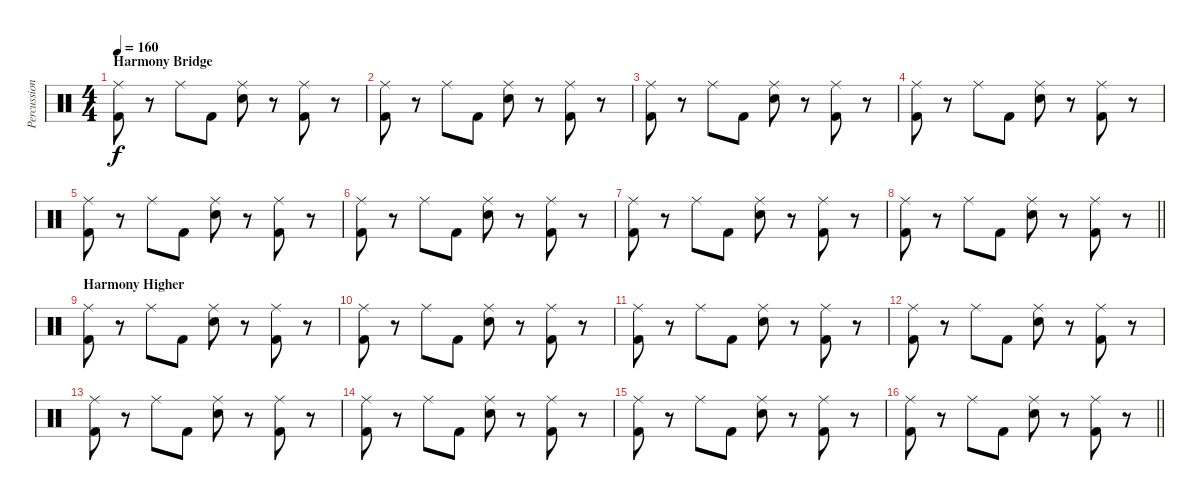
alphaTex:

\track ("Percussion" "Percussion") {instrument percussion}
\staff {score}
\articulation defaults
\ts (4 4)
\section ("" "Harmony Bridge")
\tempo 160
\clef neutral
\ks c
("Kick (hit) 2" "Ride (middle)").8{dy f} r.8 "Ride (middle)".8 "Kick (hit) 2".8 ("Electric Snare (hit)" "Ride (middle)").8 r.8 ("Kick (hit) 2" "Ride (middle)").8 r.8 |
("Kick (hit) 2" "Ride (middle)").8 r.8 "Ride (middle)".8 "Kick (hit) 2".8 ("Electric Snare (hit)" "Ride (middle)").8 r.8 ("Kick (hit) 2" "Ride (middle)").8 r.8 |
("Kick (hit) 2" "Ride (middle)").8 r.8 "Ride (middle)".8 "Kick (hit) 2".8 ("Electric Snare (hit)" "Ride (middle)").8 r.8 ("Kick (hit) 2" "Ride (middle)").8 r.8 |
("Kick (hit) 2" "Ride (middle)").8 r.8 "Ride (middle)".8 "Kick (hit) 2".8 ("Electric Snare (hit)" "Ride (middle)").8 r.8 ("Kick (hit) 2" "Ride (middle)").8 r.8 |
("Kick (hit) 2" "Ride (middle)").8 r.8 "Ride (middle)".8 "Kick (hit) 2".8 ("Electric Snare (hit)" "Ride (middle)").8 r.8 ("Kick (hit) 2" "Ride (middle)").8 r.8 |
("Kick (hit) 2" "Ride (middle)").8 r.8 "Ride (middle)".8 "Kick (hit) 2".8 ("Electric Snare (hit)" "Ride (middle)").8 r.8 ("Kick (hit) 2" "Ride (middle)").8 r.8 |
("Kick (hit) 2" "Ride (middle)").8 r.8 "Ride (middle)".8 "Kick (hit) 2".8 ("Electric Snare (hit)" "Ride (middle)").8 r.8 ("Kick (hit) 2" "Ride (middle)").8 r.8 |
\barLineRight lightlight
("Kick (hit) 2" "Ride (middle)").8 r.8 "Ride (middle)".8 "Kick (hit) 2".8 ("Electric Snare (hit)" "Ride (middle)").8 r.8 ("Kick (hit) 2" "Ride (middle)").8 r.8 |
\section ("" "Harmony Higher")
("Kick (hit) 2" "Ride (middle)").8 r.8 "Ride (middle)".8 "Kick (hit) 2".8 ("Electric Snare (hit)" "Ride (middle)").8 r.8 ("Kick (hit) 2" "Ride (middle)").8 r.8 |
("Kick (hit) 2" "Ride (middle)").8 r.8 "Ride (middle)".8 "Kick (hit) 2".8 ("Electric Snare (hit)" "Ride (middle)").8 r.8 ("Kick (hit) 2" "Ride (middle)").8 r.8 |
("Kick (hit) 2" "Ride (middle)").8 r.8 "Ride (middle)".8 "Kick (hit) 2".8 ("Electric Snare (hit)" "Ride (middle)").8 r.8 ("Kick (hit) 2" "Ride (middle)").8 r.8 |
("Kick (hit) 2" "Ride (middle)").8 r.8 "Ride (middle)".8 "Kick (hit) 2".8 ("Electric Snare (hit)" "Ride (middle)").8 r.8 ("Kick (hit) 2" "Ride (middle)").8 r.8 |
("Kick (hit) 2" "Ride (middle)").8 r.8 "Ride (middle)".8 "Kick (hit) 2".8 ("Electric Snare (hit)" "Ride (middle)").8 r.8 ("Kick (hit) 2" "Ride (middle)").8 r.8 |
("Kick (hit) 2" "Ride (middle)").8 r.8 "Ride (middle)".8 "Kick (hit) 2".8 ("Electric Snare (hit)" "Ride (middle)").8 r.8 ("Kick (hit) 2" "Ride (middle)").8 r.8 |
("Kick (hit) 2" "Ride (middle)").8 r.8 "Ride (middle)".8 "Kick (hit) 2".8 ("Electric Snare (hit)" "Ride (middle)").8 r.8 ("Kick (hit) 2" "Ride (middle)").8 r.8 |
\barLineRight lightlight
("Kick (hit) 2" "Ride (middle)").8 r.8 "Ride (middle)".8 "Kick (hit) 2".8 ("Electric Snare (hit)" "Ride (middle)").8 r.8 ("Kick (hit) 2" "Ride (middle)").8 r.8
